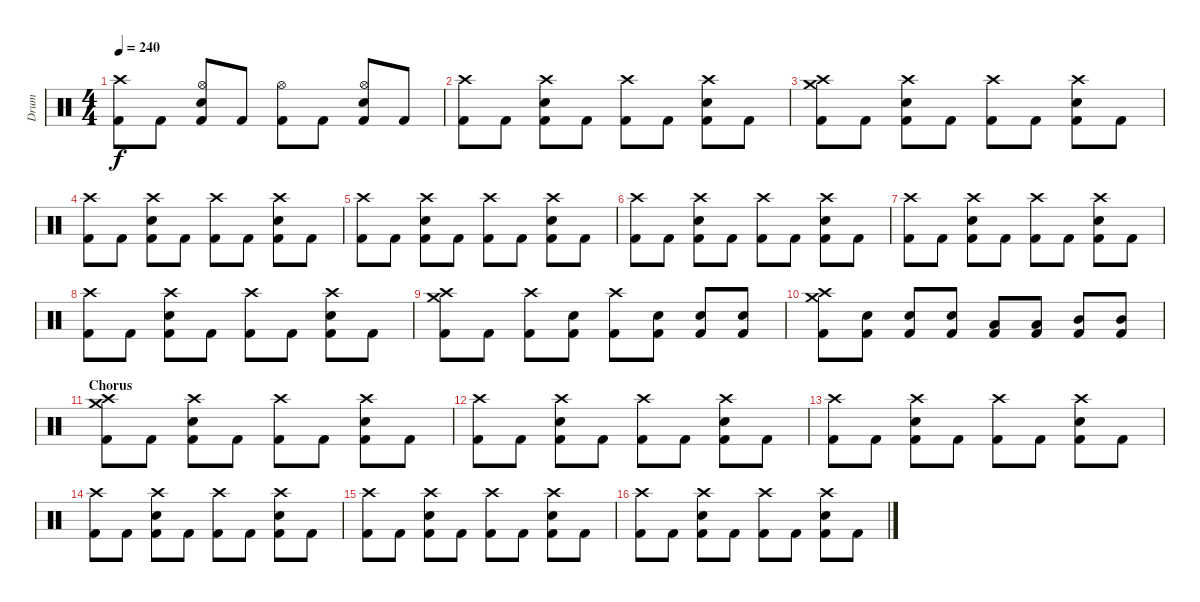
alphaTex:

\track ("Drum" "Drum") {instrument percussion}
\staff {score}
\articulation defaults
\ts (4 4)
\tempo 240
\clef neutral
\ks c
("Crash high (hit)" "Kick (hit) 2").8{dy f} "Kick (hit) 2".8 ("Hi-Hat (open)" "Kick (hit) 2" "Electric Snare (hit)").8 "Kick (hit) 2".8 ("Hi-Hat (open)" "Kick (hit) 2").8 "Kick (hit) 2".8 ("Hi-Hat (open)" "Kick (hit) 2" "Electric Snare (hit)").8 "Kick (hit) 2".8 |
("Crash high (hit)" "Kick (hit) 2").8 "Kick (hit) 2".8 ("Crash high (hit)" "Kick (hit) 2" "Electric Snare (hit)").8 "Kick (hit) 2".8 ("Crash high (hit)" "Kick (hit) 2").8 "Kick (hit) 2".8 ("Crash high (hit)" "Kick (hit) 2" "Electric Snare (hit)").8 "Kick (hit) 2".8 |
("Crash high (hit)" "Kick (hit) 2" "Crash medium (hit)").8 "Kick (hit) 2".8 ("Crash high (hit)" "Kick (hit) 2" "Electric Snare (hit)").8 "Kick (hit) 2".8 ("Crash high (hit)" "Kick (hit) 2").8 "Kick (hit) 2".8 ("Crash high (hit)" "Kick (hit) 2" "Electric Snare (hit)").8 "Kick (hit) 2".8 |
("Crash high (hit)" "Kick (hit) 2").8 "Kick (hit) 2".8 ("Crash high (hit)" "Kick (hit) 2" "Electric Snare (hit)").8 "Kick (hit) 2".8 ("Crash high (hit)" "Kick (hit) 2").8 "Kick (hit) 2".8 ("Crash high (hit)" "Kick (hit) 2" "Electric Snare (hit)").8 "Kick (hit) 2".8 |
("Crash high (hit)" "Kick (hit) 2").8 "Kick (hit) 2".8 ("Crash high (hit)" "Kick (hit) 2" "Electric Snare (hit)").8 "Kick (hit) 2".8 ("Crash high (hit)" "Kick (hit) 2").8 "Kick (hit) 2".8 ("Crash high (hit)" "Kick (hit) 2" "Electric Snare (hit)").8 "Kick (hit) 2".8 |
("Crash high (hit)" "Kick (hit) 2").8 "Kick (hit) 2".8 ("Crash high (hit)" "Kick (hit) 2" "Electric Snare (hit)").8 "Kick (hit) 2".8 ("Crash high (hit)" "Kick (hit) 2").8 "Kick (hit) 2".8 ("Crash high (hit)" "Kick (hit) 2" "Electric Snare (hit)").8 "Kick (hit) 2".8 |
("Crash high (hit)" "Kick (hit) 2").8 "Kick (hit) 2".8 ("Crash high (hit)" "Kick (hit) 2" "Electric Snare (hit)").8 "Kick (hit) 2".8 ("Crash high (hit)" "Kick (hit) 2").8 "Kick (hit) 2".8 ("Crash high (hit)" "Kick (hit) 2" "Electric Snare (hit)").8 "Kick (hit) 2".8 |
("Crash high (hit)" "Kick (hit) 2").8 "Kick (hit) 2".8 ("Crash high (hit)" "Kick (hit) 2" "Electric Snare (hit)").8 "Kick (hit) 2".8 ("Crash high (hit)" "Kick (hit) 2").8 "Kick (hit) 2".8 ("Crash high (hit)" "Kick (hit) 2" "Electric Snare (hit)").8 "Kick (hit) 2".8 |
("Crash high (hit)" "Kick (hit) 2" "Crash medium (hit)").8 "Kick (hit) 2".8 ("Crash high (hit)" "Kick (hit) 2").8 ("Kick (hit) 2" "Electric Snare (hit)").8 ("Crash high (hit)" "Kick (hit) 2").8 ("Kick (hit) 2" "Electric Snare (hit)").8 ("Kick (hit) 2" "Electric Snare (hit)").8 ("Kick (hit) 2" "Electric Snare (hit)").8 |
("Crash high (hit)" "Kick (hit) 2" "Crash medium (hit)").8 ("Kick (hit) 2" "Electric Snare (hit)").8 ("Kick (hit) 2" "Electric Snare (hit)").8 ("Kick (hit) 2" "Electric Snare (hit)").8 ("Kick (hit) 2" "Low Tom (hit)").8 ("Kick (hit) 2" "Low Tom (hit)").8 ("Kick (hit) 2" "Mid Tom (hit)").8 ("Kick (hit) 2" "Mid Tom (hit)").8 |
\section ("" "Chorus")
("Crash high (hit)" "Kick (hit) 2" "Crash medium (hit)").8 "Kick (hit) 2".8 ("Crash high (hit)" "Kick (hit) 2" "Electric Snare (hit)").8 "Kick (hit) 2".8 ("Crash high (hit)" "Kick (hit) 2").8 "Kick (hit) 2".8 ("Crash high (hit)" "Kick (hit) 2" "Electric Snare (hit)").8 "Kick (hit) 2".8 |
("Crash high (hit)" "Kick (hit) 2").8 "Kick (hit) 2".8 ("Crash high (hit)" "Kick (hit) 2" "Electric Snare (hit)").8 "Kick (hit) 2".8 ("Crash high (hit)" "Kick (hit) 2").8 "Kick (hit) 2".8 ("Crash high (hit)" "Kick (hit) 2" "Electric Snare (hit)").8 "Kick (hit) 2".8 |
("Crash high (hit)" "Kick (hit) 2").8 "Kick (hit) 2".8 ("Crash high (hit)" "Kick (hit) 2" "Electric Snare (hit)").8 "Kick (hit) 2".8 ("Crash high (hit)" "Kick (hit) 2").8 "Kick (hit) 2".8 ("Crash high (hit)" "Kick (hit) 2" "Electric Snare (hit)").8 "Kick (hit) 2".8 |
("Crash high (hit)" "Kick (hit) 2").8 "Kick (hit) 2".8 ("Crash high (hit)" "Kick (hit) 2" "Electric Snare (hit)").8 "Kick (hit) 2".8 ("Crash high (hit)" "Kick (hit) 2").8 "Kick (hit) 2".8 ("Crash high (hit)" "Kick (hit) 2" "Electric Snare (hit)").8 "Kick (hit) 2".8 |
("Crash high (hit)" "Kick (hit) 2").8 "Kick (hit) 2".8 ("Crash high (hit)" "Kick (hit) 2" "Electric Snare (hit)").8 "Kick (hit) 2".8 ("Crash high (hit)" "Kick (hit) 2").8 "Kick (hit) 2".8 ("Crash high (hit)" "Kick (hit) 2" "Electric Snare (hit)").8 "Kick (hit) 2".8 |
("Crash high (hit)" "Kick (hit) 2").8 "Kick (hit) 2".8 ("Crash high (hit)" "Kick (hit) 2" "Electric Snare (hit)").8 "Kick (hit) 2".8 ("Crash high (hit)" "Kick (hit) 2").8 "Kick (hit) 2".8 ("Crash high (hit)" "Kick (hit) 2" "Electric Snare (hit)").8 "Kick (hit) 2".8
